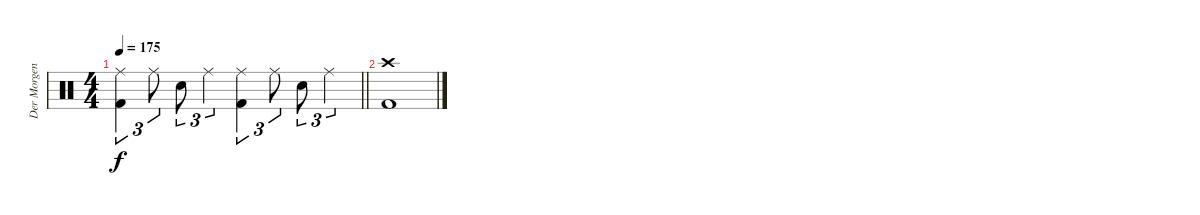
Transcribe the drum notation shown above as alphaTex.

\track ("Der Morgenstern" "Der Morgen") {instrument percussion}
\staff {score}
\articulation defaults
\ts (4 4)
\tempo 175
\clef neutral
\barLineRight lightlight
\ks c
("Ride (middle)" "Kick (hit) 2").4{tu (3 2) dy f} "Ride (middle)".8{tu (3 2)} "Electric Snare (hit)".8{tu (3 2)} "Ride (middle)".4{tu (3 2)} ("Ride (middle)" "Kick (hit) 2").4{tu (3 2)} "Ride (middle)".8{tu (3 2)} "Electric Snare (hit)".8{tu (3 2)} "Ride (middle)".4{tu (3 2)} |
("Crash high (hit)" "Kick (hit) 2").1
